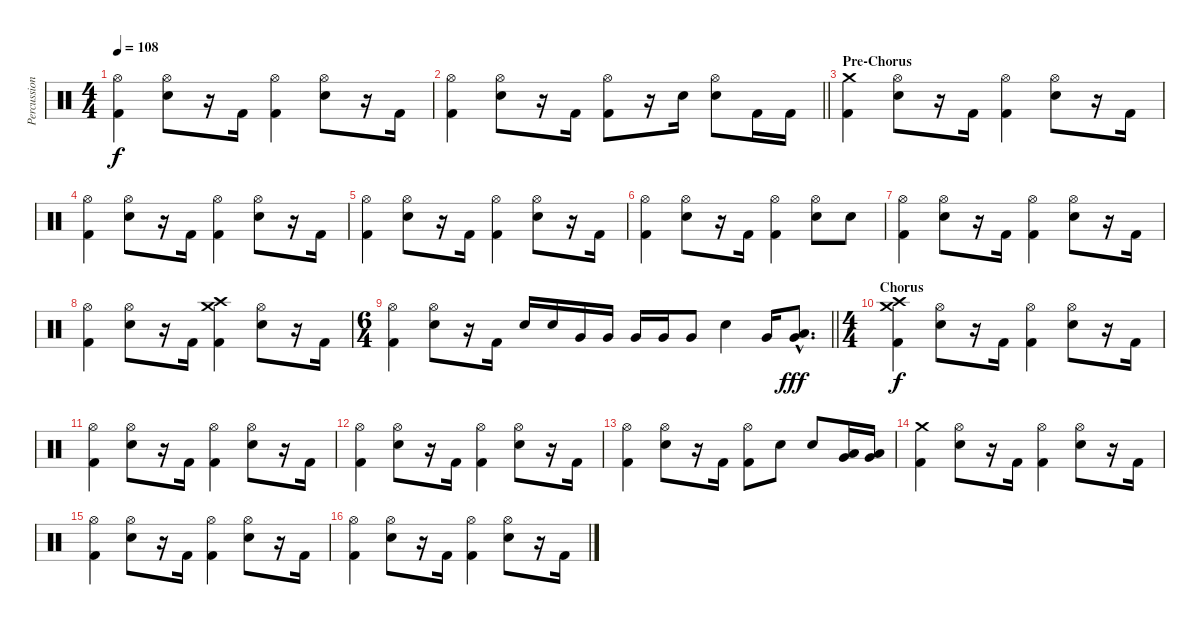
\track ("Percussion" "Percussion") {instrument percussion}
\staff {score}
\articulation defaults
\ts (4 4)
\tempo 108
\clef neutral
\ks c
("Hi-Hat (open)" "Kick (hit) 2").4{dy f} ("Hi-Hat (open)" "Snare (hit) 2").8 r.16 "Kick (hit) 2".16 ("Hi-Hat (open)" "Kick (hit) 2").4 ("Hi-Hat (open)" "Snare (hit) 2").8 r.16 "Kick (hit) 2".16 |
\barLineRight lightlight
("Hi-Hat (open)" "Kick (hit) 2").4 ("Hi-Hat (open)" "Snare (hit) 2").8 r.16 "Kick (hit) 2".16 ("Hi-Hat (open)" "Kick (hit) 2").8 r.16 "Snare (hit) 2".16 ("Hi-Hat (open)" "Snare (hit) 2").8 "Kick (hit) 2".16 "Kick (hit) 2".16 |
\section ("" "Pre-Chorus")
("Kick (hit) 2" "Crash medium (hit)").4 ("Hi-Hat (open)" "Snare (hit) 2").8 r.16 "Kick (hit) 2".16 ("Hi-Hat (open)" "Kick (hit) 2").4 ("Hi-Hat (open)" "Snare (hit) 2").8 r.16 "Kick (hit) 2".16 |
("Hi-Hat (open)" "Kick (hit) 2").4 ("Hi-Hat (open)" "Snare (hit) 2").8 r.16 "Kick (hit) 2".16 ("Hi-Hat (open)" "Kick (hit) 2").4 ("Hi-Hat (open)" "Snare (hit) 2").8 r.16 "Kick (hit) 2".16 |
("Hi-Hat (open)" "Kick (hit) 2").4 ("Hi-Hat (open)" "Snare (hit) 2").8 r.16 "Kick (hit) 2".16 ("Hi-Hat (open)" "Kick (hit) 2").4 ("Hi-Hat (open)" "Snare (hit) 2").8 r.16 "Kick (hit) 2".16 |
("Hi-Hat (open)" "Kick (hit) 2").4 ("Hi-Hat (open)" "Snare (hit) 2").8 r.16 "Kick (hit) 2".16 ("Hi-Hat (open)" "Kick (hit) 2").4 ("Hi-Hat (open)" "Snare (hit) 2").8 "Snare (hit) 2".8 |
("Hi-Hat (open)" "Kick (hit) 2").4 ("Hi-Hat (open)" "Snare (hit) 2").8 r.16 "Kick (hit) 2".16 ("Hi-Hat (open)" "Kick (hit) 2").4 ("Hi-Hat (open)" "Snare (hit) 2").8 r.16 "Kick (hit) 2".16 |
("Hi-Hat (open)" "Kick (hit) 2").4 ("Hi-Hat (open)" "Snare (hit) 2").8 r.16 "Kick (hit) 2".16 ("Kick (hit) 2" "Crash high (hit)" "Crash medium (hit)").4 ("Hi-Hat (open)" "Snare (hit) 2").8 r.16 "Kick (hit) 2".16 |
\ts (6 4)
\barLineRight lightlight
("Hi-Hat (open)" "Kick (hit) 2").4 ("Hi-Hat (open)" "Snare (hit) 2").8 r.16 "Kick (hit) 2".16 "Snare (hit) 2".16 "Snare (hit) 2".16 "Very Low Tom (hit)".16 "Very Low Tom (hit)".16 "Very Low Tom (hit)".16 "Very Low Tom (hit)".16 "Very Low Tom (hit)".8 "Snare (hit) 2".4 "Very Low Tom (hit)".16 ("Low Tom (hit)"{hac} "Very Low Tom (hit)"{hac}).8{d dy fff} |
\ts (4 4)
\section ("" "Chorus")
("Kick (hit) 2" "Crash medium (hit)" "Crash high (hit)").4{dy f} ("Hi-Hat (open)" "Snare (hit) 2").8 r.16 "Kick (hit) 2".16 ("Hi-Hat (open)" "Kick (hit) 2").4 ("Hi-Hat (open)" "Snare (hit) 2").8 r.16 "Kick (hit) 2".16 |
("Hi-Hat (open)" "Kick (hit) 2").4 ("Hi-Hat (open)" "Snare (hit) 2").8 r.16 "Kick (hit) 2".16 ("Hi-Hat (open)" "Kick (hit) 2").4 ("Hi-Hat (open)" "Snare (hit) 2").8 r.16 "Kick (hit) 2".16 |
("Hi-Hat (open)" "Kick (hit) 2").4 ("Hi-Hat (open)" "Snare (hit) 2").8 r.16 "Kick (hit) 2".16 ("Hi-Hat (open)" "Kick (hit) 2").4 ("Hi-Hat (open)" "Snare (hit) 2").8 r.16 "Kick (hit) 2".16 |
("Hi-Hat (open)" "Kick (hit) 2").4 ("Hi-Hat (open)" "Snare (hit) 2").8 r.16 "Kick (hit) 2".16 ("Hi-Hat (open)" "Kick (hit) 2").8 "Snare (hit) 2".8 "Snare (hit) 2".8 ("Low Tom (hit)" "Very Low Tom (hit)").16 ("Low Tom (hit)" "Very Low Tom (hit)").16 |
("Kick (hit) 2" "Crash medium (hit)").4 ("Hi-Hat (open)" "Snare (hit) 2").8 r.16 "Kick (hit) 2".16 ("Hi-Hat (open)" "Kick (hit) 2").4 ("Hi-Hat (open)" "Snare (hit) 2").8 r.16 "Kick (hit) 2".16 |
("Hi-Hat (open)" "Kick (hit) 2").4 ("Hi-Hat (open)" "Snare (hit) 2").8 r.16 "Kick (hit) 2".16 ("Hi-Hat (open)" "Kick (hit) 2").4 ("Hi-Hat (open)" "Snare (hit) 2").8 r.16 "Kick (hit) 2".16 |
("Hi-Hat (open)" "Kick (hit) 2").4 ("Hi-Hat (open)" "Snare (hit) 2").8 r.16 "Kick (hit) 2".16 ("Hi-Hat (open)" "Kick (hit) 2").4 ("Hi-Hat (open)" "Snare (hit) 2").8 r.16 "Kick (hit) 2".16
